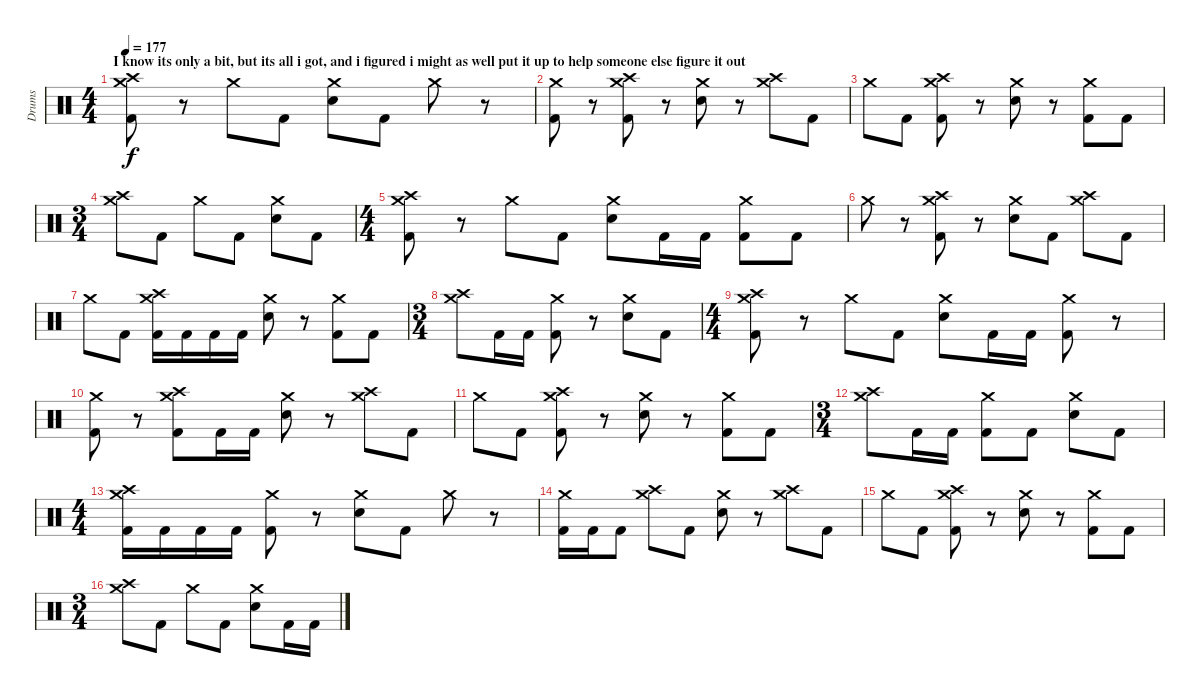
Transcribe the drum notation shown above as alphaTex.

\track ("Drums" "Drums") {instrument percussion}
\staff {score}
\articulation defaults
\ts (4 4)
\section ("" "I know its only a bit, but its all i got, and i figured i might as well put it up to help someone else figure it out")
\tempo 177
\clef neutral
\ks c
("Crash medium (hit)" "Crash high (hit)" "Kick (hit) 2").8{dy f} r.8 "Crash medium (hit)".8 "Kick (hit) 2".8 ("Crash medium (hit)" "Electric Snare (hit)").8 "Kick (hit) 2".8 "Crash medium (hit)".8 r.8 |
("Crash medium (hit)" "Kick (hit) 2").8 r.8 ("Crash medium (hit)" "Crash high (hit)" "Kick (hit) 2").8 r.8 ("Crash medium (hit)" "Electric Snare (hit)").8 r.8 ("Crash medium (hit)" "Crash high (hit)").8 "Kick (hit) 2".8 |
"Crash medium (hit)".8 "Kick (hit) 2".8 ("Crash medium (hit)" "Crash high (hit)" "Kick (hit) 2").8 r.8 ("Crash medium (hit)" "Electric Snare (hit)").8 r.8 ("Crash medium (hit)" "Kick (hit) 2").8 "Kick (hit) 2".8 |
\ts (3 4)
("Crash medium (hit)" "Crash high (hit)").8 "Kick (hit) 2".8 "Crash medium (hit)".8 "Kick (hit) 2".8 ("Crash medium (hit)" "Electric Snare (hit)").8 "Kick (hit) 2".8 |
\ts (4 4)
("Crash medium (hit)" "Crash high (hit)" "Kick (hit) 2").8 r.8 "Crash medium (hit)".8 "Kick (hit) 2".8 ("Crash medium (hit)" "Electric Snare (hit)").8 "Kick (hit) 2".16 "Kick (hit) 2".16 ("Crash medium (hit)" "Kick (hit) 2").8 "Kick (hit) 2".8 |
"Crash medium (hit)".8 r.8 ("Crash medium (hit)" "Crash high (hit)" "Kick (hit) 2").8 r.8 ("Crash medium (hit)" "Electric Snare (hit)").8 "Kick (hit) 2".8 ("Crash medium (hit)" "Crash high (hit)").8 "Kick (hit) 2".8 |
"Crash medium (hit)".8 "Kick (hit) 2".8 ("Crash medium (hit)" "Crash high (hit)" "Kick (hit) 2").16 "Kick (hit) 2".16 "Kick (hit) 2".16 "Kick (hit) 2".16 ("Crash medium (hit)" "Electric Snare (hit)").8 r.8 ("Crash medium (hit)" "Kick (hit) 2").8 "Kick (hit) 2".8 |
\ts (3 4)
("Crash medium (hit)" "Crash high (hit)").8 "Kick (hit) 2".16 "Kick (hit) 2".16 ("Crash medium (hit)" "Kick (hit) 2").8 r.8 ("Crash medium (hit)" "Electric Snare (hit)").8 "Kick (hit) 2".8 |
\ts (4 4)
("Crash medium (hit)" "Crash high (hit)" "Kick (hit) 2").8 r.8 "Crash medium (hit)".8 "Kick (hit) 2".8 ("Crash medium (hit)" "Electric Snare (hit)").8 "Kick (hit) 2".16 "Kick (hit) 2".16 ("Crash medium (hit)" "Kick (hit) 2").8 r.8 |
("Crash medium (hit)" "Kick (hit) 2").8 r.8 ("Crash medium (hit)" "Crash high (hit)" "Kick (hit) 2").8 "Kick (hit) 2".16 "Kick (hit) 2".16 ("Crash medium (hit)" "Electric Snare (hit)").8 r.8 ("Crash medium (hit)" "Crash high (hit)").8 "Kick (hit) 2".8 |
"Crash medium (hit)".8 "Kick (hit) 2".8 ("Crash medium (hit)" "Crash high (hit)" "Kick (hit) 2").8 r.8 ("Crash medium (hit)" "Electric Snare (hit)").8 r.8 ("Crash medium (hit)" "Kick (hit) 2").8 "Kick (hit) 2".8 |
\ts (3 4)
("Crash medium (hit)" "Crash high (hit)").8 "Kick (hit) 2".16 "Kick (hit) 2".16 ("Crash medium (hit)" "Kick (hit) 2").8 "Kick (hit) 2".8 ("Crash medium (hit)" "Electric Snare (hit)").8 "Kick (hit) 2".8 |
\ts (4 4)
("Crash medium (hit)" "Crash high (hit)" "Kick (hit) 2").16 "Kick (hit) 2".16 "Kick (hit) 2".16 "Kick (hit) 2".16 ("Crash medium (hit)" "Kick (hit) 2").8 r.8 ("Crash medium (hit)" "Electric Snare (hit)").8 "Kick (hit) 2".8 "Crash medium (hit)".8 r.8 |
("Crash medium (hit)" "Kick (hit) 2").16 "Kick (hit) 2".16 "Kick (hit) 2".8 ("Crash medium (hit)" "Crash high (hit)").8 "Kick (hit) 2".8 ("Crash medium (hit)" "Electric Snare (hit)").8 r.8 ("Crash medium (hit)" "Crash high (hit)").8 "Kick (hit) 2".8 |
"Crash medium (hit)".8 "Kick (hit) 2".8 ("Crash medium (hit)" "Crash high (hit)" "Kick (hit) 2").8 r.8 ("Crash medium (hit)" "Electric Snare (hit)").8 r.8 ("Crash medium (hit)" "Kick (hit) 2").8 "Kick (hit) 2".8 |
\ts (3 4)
("Crash medium (hit)" "Crash high (hit)").8 "Kick (hit) 2".8 "Crash medium (hit)".8 "Kick (hit) 2".8 ("Crash medium (hit)" "Electric Snare (hit)").8 "Kick (hit) 2".16 "Kick (hit) 2".16
